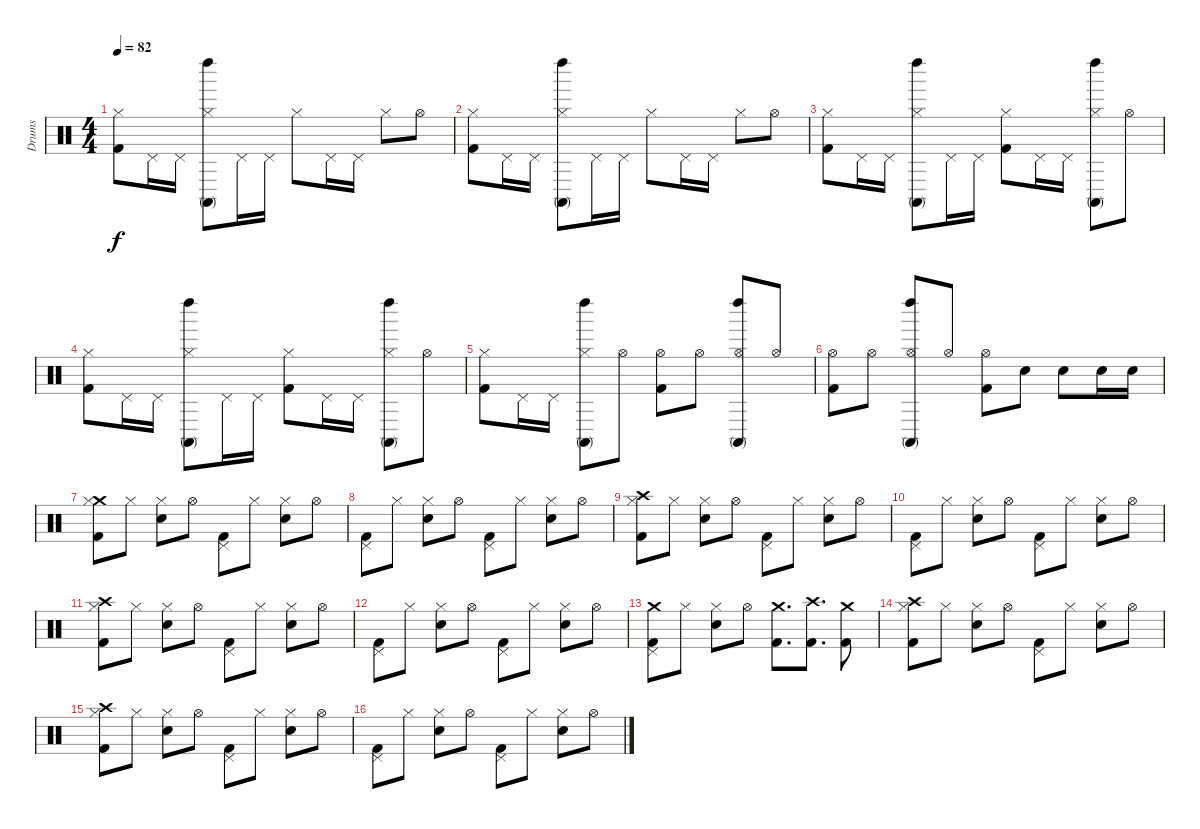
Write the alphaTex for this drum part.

\track ("Drums" "Drums") {instrument percussion}
\staff {score}
\articulation defaults
\ts (4 4)
\tempo 82
\clef neutral
\ks c
("Hi-Hat (closed)" "Kick (hit) 2").8{dy f} "Pedal Hi-Hat (hit)".16 "Pedal Hi-Hat (hit)".16 ("Hi-Hat (closed)" "Conga high (mute)" "Left Maraca (hit)").8 "Pedal Hi-Hat (hit)".16 "Pedal Hi-Hat (hit)".16 "Hi-Hat (closed)".8 "Pedal Hi-Hat (hit)".16 "Pedal Hi-Hat (hit)".16 "Hi-Hat (closed)".8 "Hi-Hat (open)".8 |
("Hi-Hat (closed)" "Kick (hit) 2").8 "Pedal Hi-Hat (hit)".16 "Pedal Hi-Hat (hit)".16 ("Hi-Hat (closed)" "Left Maraca (hit)" "Conga high (mute)").8 "Pedal Hi-Hat (hit)".16 "Pedal Hi-Hat (hit)".16 "Hi-Hat (closed)".8 "Pedal Hi-Hat (hit)".16 "Pedal Hi-Hat (hit)".16 "Hi-Hat (closed)".8 "Hi-Hat (open)".8 |
("Hi-Hat (closed)" "Kick (hit) 2").8 "Pedal Hi-Hat (hit)".16 "Pedal Hi-Hat (hit)".16 ("Hi-Hat (closed)" "Conga high (mute)" "Left Maraca (hit)").8 "Pedal Hi-Hat (hit)".16 "Pedal Hi-Hat (hit)".16 ("Hi-Hat (closed)" "Kick (hit) 2").8 "Pedal Hi-Hat (hit)".16 "Pedal Hi-Hat (hit)".16 ("Hi-Hat (closed)" "Left Maraca (hit)" "Conga high (mute)").8 "Hi-Hat (open)".8 |
("Hi-Hat (closed)" "Kick (hit) 2").8 "Pedal Hi-Hat (hit)".16 "Pedal Hi-Hat (hit)".16 ("Hi-Hat (closed)" "Conga high (mute)" "Left Maraca (hit)").8 "Pedal Hi-Hat (hit)".16 "Pedal Hi-Hat (hit)".16 ("Hi-Hat (closed)" "Kick (hit) 2").8 "Pedal Hi-Hat (hit)".16 "Pedal Hi-Hat (hit)".16 ("Hi-Hat (closed)" "Left Maraca (hit)" "Conga high (mute)").8 "Hi-Hat (open)".8 |
("Hi-Hat (closed)" "Kick (hit) 2").8 "Pedal Hi-Hat (hit)".16 "Pedal Hi-Hat (hit)".16 ("Hi-Hat (closed)" "Conga high (mute)" "Left Maraca (hit)").8 "Hi-Hat (open)".8 ("Kick (hit) 2" "Hi-Hat (open)").8 "Hi-Hat (open)".8 ("Left Maraca (hit)" "Conga high (mute)" "Hi-Hat (open)").8 "Hi-Hat (open)".8 |
("Hi-Hat (open)" "Kick (hit) 2").8 "Hi-Hat (open)".8 ("Hi-Hat (open)" "Conga high (mute)" "Left Maraca (hit)").8 "Hi-Hat (open)".8 ("Hi-Hat (open)" "Kick (hit) 2").8 "Snare (hit) 2".8 "Snare (hit) 2".8 "Snare (hit) 2".16 "Snare (hit) 2".16 |
("Crash medium (hit)" "Kick (hit) 2" "Hi-Hat (closed)").8 "Hi-Hat (closed)".8 ("Snare (hit) 2" "Hi-Hat (closed)").8 "Hi-Hat (open)".8 ("Pedal Hi-Hat (hit)" "Kick (hit) 2").8 "Hi-Hat (closed)".8 ("Snare (hit) 2" "Hi-Hat (closed)").8 "Hi-Hat (open)".8 |
("Pedal Hi-Hat (hit)" "Kick (hit) 2").8 "Hi-Hat (closed)".8 ("Snare (hit) 2" "Hi-Hat (closed)").8 "Hi-Hat (open)".8 ("Pedal Hi-Hat (hit)" "Kick (hit) 2").8 "Hi-Hat (closed)".8 ("Snare (hit) 2" "Hi-Hat (closed)").8 "Hi-Hat (open)".8 |
("Crash high (hit)" "Kick (hit) 2" "Hi-Hat (closed)").8 "Hi-Hat (closed)".8 ("Snare (hit) 2" "Hi-Hat (closed)").8 "Hi-Hat (open)".8 ("Pedal Hi-Hat (hit)" "Kick (hit) 2").8 "Hi-Hat (closed)".8 ("Snare (hit) 2" "Hi-Hat (closed)").8 "Hi-Hat (open)".8 |
("Pedal Hi-Hat (hit)" "Kick (hit) 2").8 "Hi-Hat (closed)".8 ("Snare (hit) 2" "Hi-Hat (closed)").8 "Hi-Hat (open)".8 ("Pedal Hi-Hat (hit)" "Kick (hit) 2").8 "Hi-Hat (closed)".8 ("Snare (hit) 2" "Hi-Hat (closed)").8 "Hi-Hat (open)".8 |
("Crash high (hit)" "Kick (hit) 2" "Hi-Hat (closed)").8 "Hi-Hat (closed)".8 ("Snare (hit) 2" "Hi-Hat (closed)").8 "Hi-Hat (open)".8 ("Pedal Hi-Hat (hit)" "Kick (hit) 2").8 "Hi-Hat (closed)".8 ("Snare (hit) 2" "Hi-Hat (closed)").8 "Hi-Hat (open)".8 |
("Pedal Hi-Hat (hit)" "Kick (hit) 2").8 "Hi-Hat (closed)".8 ("Snare (hit) 2" "Hi-Hat (closed)").8 "Hi-Hat (open)".8 ("Pedal Hi-Hat (hit)" "Kick (hit) 2").8 "Hi-Hat (closed)".8 ("Snare (hit) 2" "Hi-Hat (closed)").8 "Hi-Hat (open)".8 |
("Crash medium (hit)" "Pedal Hi-Hat (hit)" "Kick (hit) 2").8 "Hi-Hat (closed)".8 ("Snare (hit) 2" "Hi-Hat (closed)").8 "Hi-Hat (open)".8 ("Crash medium (hit)" "Kick (hit) 2").8{d} ("Crash high (hit)" "Kick (hit) 2").8{d} ("Crash medium (hit)" "Kick (hit) 2").8 |
("Crash high (hit)" "Kick (hit) 2" "Hi-Hat (closed)").8 "Hi-Hat (closed)".8 ("Snare (hit) 2" "Hi-Hat (closed)").8 "Hi-Hat (open)".8 ("Pedal Hi-Hat (hit)" "Kick (hit) 2").8 "Hi-Hat (closed)".8 ("Snare (hit) 2" "Hi-Hat (closed)").8 "Hi-Hat (open)".8 |
("Crash high (hit)" "Kick (hit) 2" "Hi-Hat (closed)").8 "Hi-Hat (closed)".8 ("Snare (hit) 2" "Hi-Hat (closed)").8 "Hi-Hat (open)".8 ("Pedal Hi-Hat (hit)" "Kick (hit) 2").8 "Hi-Hat (closed)".8 ("Snare (hit) 2" "Hi-Hat (closed)").8 "Hi-Hat (open)".8 |
("Pedal Hi-Hat (hit)" "Kick (hit) 2").8 "Hi-Hat (closed)".8 ("Snare (hit) 2" "Hi-Hat (closed)").8 "Hi-Hat (open)".8 ("Pedal Hi-Hat (hit)" "Kick (hit) 2").8 "Hi-Hat (closed)".8 ("Snare (hit) 2" "Hi-Hat (closed)").8 "Hi-Hat (open)".8
